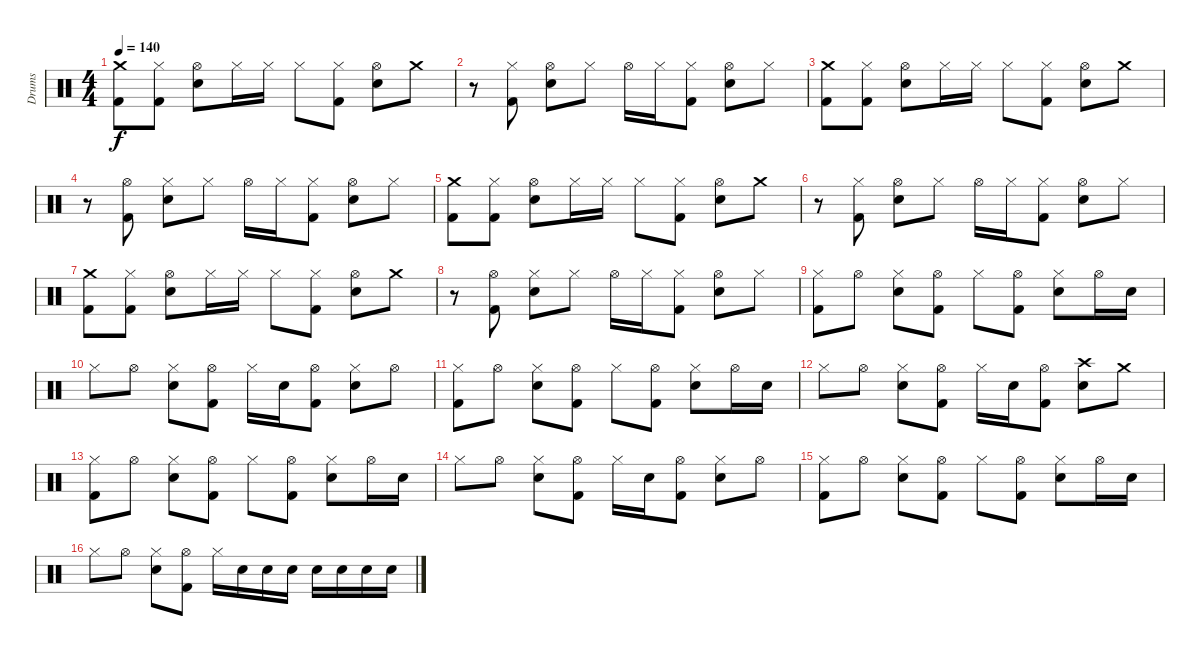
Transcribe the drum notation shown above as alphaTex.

\track ("Drums" "Drums") {instrument percussion}
\staff {score}
\articulation defaults
\ts (4 4)
\tempo 140
\clef neutral
\ks c
("Crash medium (hit)" "Kick (hit) 2").8{dy f} ("Hi-Hat (closed)" "Kick (hit) 2").8 ("Hi-Hat (open)" "Electric Snare (hit)").8 "Hi-Hat (closed)".16 "Hi-Hat (closed)".16 "Hi-Hat (closed)".8 ("Hi-Hat (closed)" "Kick (hit) 2").8 ("Hi-Hat (open)" "Electric Snare (hit)").8 "Crash medium (hit)".8 |
r.8 ("Hi-Hat (closed)" "Kick (hit) 2").8 ("Hi-Hat (open)" "Electric Snare (hit)").8 "Hi-Hat (closed)".8 "Hi-Hat (open)".16 "Hi-Hat (closed)".16 ("Hi-Hat (closed)" "Kick (hit) 2").8 ("Hi-Hat (open)" "Electric Snare (hit)").8 "Hi-Hat (closed)".8 |
("Crash medium (hit)" "Kick (hit) 2").8 ("Hi-Hat (closed)" "Kick (hit) 2").8 ("Hi-Hat (open)" "Electric Snare (hit)").8 "Hi-Hat (closed)".16 "Hi-Hat (closed)".16 "Hi-Hat (closed)".8 ("Hi-Hat (closed)" "Kick (hit) 2").8 ("Hi-Hat (open)" "Electric Snare (hit)").8 "Crash medium (hit)".8 |
r.8 ("Hi-Hat (open)" "Kick (hit) 2").8 ("Hi-Hat (closed)" "Electric Snare (hit)").8 "Hi-Hat (closed)".8 "Hi-Hat (open)".16 "Hi-Hat (closed)".16 ("Hi-Hat (closed)" "Kick (hit) 2").8 ("Hi-Hat (open)" "Electric Snare (hit)").8 "Hi-Hat (closed)".8 |
("Crash medium (hit)" "Kick (hit) 2").8 ("Hi-Hat (closed)" "Kick (hit) 2").8 ("Hi-Hat (open)" "Electric Snare (hit)").8 "Hi-Hat (closed)".16 "Hi-Hat (closed)".16 "Hi-Hat (closed)".8 ("Hi-Hat (closed)" "Kick (hit) 2").8 ("Hi-Hat (open)" "Electric Snare (hit)").8 "Crash medium (hit)".8 |
r.8 ("Hi-Hat (closed)" "Kick (hit) 2").8 ("Hi-Hat (open)" "Electric Snare (hit)").8 "Hi-Hat (closed)".8 "Hi-Hat (open)".16 "Hi-Hat (closed)".16 ("Hi-Hat (closed)" "Kick (hit) 2").8 ("Hi-Hat (open)" "Electric Snare (hit)").8 "Hi-Hat (closed)".8 |
("Crash medium (hit)" "Kick (hit) 2").8 ("Hi-Hat (closed)" "Kick (hit) 2").8 ("Hi-Hat (open)" "Electric Snare (hit)").8 "Hi-Hat (closed)".16 "Hi-Hat (closed)".16 "Hi-Hat (closed)".8 ("Hi-Hat (closed)" "Kick (hit) 2").8 ("Hi-Hat (open)" "Electric Snare (hit)").8 "Crash medium (hit)".8 |
r.8 ("Hi-Hat (open)" "Kick (hit) 2").8 ("Hi-Hat (closed)" "Electric Snare (hit)").8 "Hi-Hat (closed)".8 "Hi-Hat (open)".16 "Hi-Hat (closed)".16 ("Hi-Hat (closed)" "Kick (hit) 2").8 ("Hi-Hat (open)" "Electric Snare (hit)").8 "Hi-Hat (closed)".8 |
("Hi-Hat (closed)" "Kick (hit) 2").8 "Hi-Hat (open)".8 ("Hi-Hat (closed)" "Electric Snare (hit)").8 ("Hi-Hat (open)" "Kick (hit) 2").8 "Hi-Hat (closed)".8 ("Hi-Hat (open)" "Kick (hit) 2").8 ("Hi-Hat (closed)" "Electric Snare (hit)").8 "Hi-Hat (open)".16 "Electric Snare (hit)".16 |
"Hi-Hat (closed)".8 "Hi-Hat (open)".8 ("Hi-Hat (closed)" "Electric Snare (hit)").8 ("Hi-Hat (open)" "Kick (hit) 2").8 "Hi-Hat (closed)".16 "Electric Snare (hit)".16 ("Hi-Hat (open)" "Kick (hit) 2").8 ("Hi-Hat (closed)" "Electric Snare (hit)").8 "Hi-Hat (open)".8 |
("Hi-Hat (closed)" "Kick (hit) 2").8 "Hi-Hat (open)".8 ("Hi-Hat (closed)" "Electric Snare (hit)").8 ("Hi-Hat (open)" "Kick (hit) 2").8 "Hi-Hat (closed)".8 ("Hi-Hat (open)" "Kick (hit) 2").8 ("Hi-Hat (closed)" "Electric Snare (hit)").8 "Hi-Hat (open)".16 "Electric Snare (hit)".16 |
"Hi-Hat (closed)".8 "Hi-Hat (open)".8 ("Hi-Hat (closed)" "Electric Snare (hit)").8 ("Hi-Hat (open)" "Kick (hit) 2").8 "Hi-Hat (closed)".16 "Electric Snare (hit)".16 ("Hi-Hat (open)" "Kick (hit) 2").8 ("Crash high (hit)" "Electric Snare (hit)").8 "Crash medium (hit)".8 |
("Hi-Hat (closed)" "Kick (hit) 2").8 "Hi-Hat (open)".8 ("Hi-Hat (closed)" "Electric Snare (hit)").8 ("Hi-Hat (open)" "Kick (hit) 2").8 "Hi-Hat (closed)".8 ("Hi-Hat (open)" "Kick (hit) 2").8 ("Hi-Hat (closed)" "Electric Snare (hit)").8 "Hi-Hat (open)".16 "Electric Snare (hit)".16 |
"Hi-Hat (closed)".8 "Hi-Hat (open)".8 ("Hi-Hat (closed)" "Electric Snare (hit)").8 ("Hi-Hat (open)" "Kick (hit) 2").8 "Hi-Hat (closed)".16 "Electric Snare (hit)".16 ("Hi-Hat (open)" "Kick (hit) 2").8 ("Hi-Hat (closed)" "Electric Snare (hit)").8 "Hi-Hat (open)".8 |
("Hi-Hat (closed)" "Kick (hit) 2").8 "Hi-Hat (open)".8 ("Hi-Hat (closed)" "Electric Snare (hit)").8 ("Hi-Hat (open)" "Kick (hit) 2").8 "Hi-Hat (closed)".8 ("Hi-Hat (open)" "Kick (hit) 2").8 ("Hi-Hat (closed)" "Electric Snare (hit)").8 "Hi-Hat (open)".16 "Electric Snare (hit)".16 |
"Hi-Hat (closed)".8 "Hi-Hat (open)".8 ("Hi-Hat (closed)" "Electric Snare (hit)").8 ("Hi-Hat (open)" "Kick (hit) 2").8 "Hi-Hat (closed)".16 "Electric Snare (hit)".16 "Electric Snare (hit)".16 "Electric Snare (hit)".16 "Electric Snare (hit)".16 "Electric Snare (hit)".16 "Electric Snare (hit)".16 "Electric Snare (hit)".16
